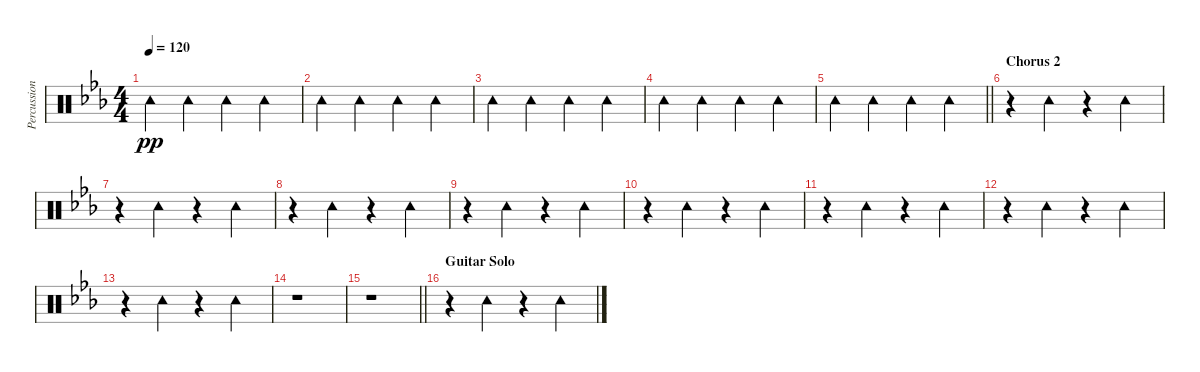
\track ("Percussion" "Percussion") {instrument percussion}
\staff {score}
\articulation defaults
\ts (4 4)
\tempo 120
\clef neutral
\ks cminor "Tambourine (hit)".4{dy pp} "Tambourine (hit)".4 "Tambourine (hit)".4 "Tambourine (hit)".4
|
"Tambourine (hit)".4 "Tambourine (hit)".4 "Tambourine (hit)".4 "Tambourine (hit)".4 |
"Tambourine (hit)".4 "Tambourine (hit)".4 "Tambourine (hit)".4 "Tambourine (hit)".4 |
"Tambourine (hit)".4 "Tambourine (hit)".4 "Tambourine (hit)".4 "Tambourine (hit)".4 |
\barLineRight lightlight "Tambourine (hit)".4 "Tambourine (hit)".4 "Tambourine (hit)".4 "Tambourine (hit)".4
|
\section ("" "Chorus 2")
r.4 "Tambourine (hit)".4 r.4 "Tambourine (hit)".4 |
r.4 "Tambourine (hit)".4 r.4 "Tambourine (hit)".4 |
r.4 "Tambourine (hit)".4 r.4 "Tambourine (hit)".4 |
r.4 "Tambourine (hit)".4 r.4 "Tambourine (hit)".4 |
r.4 "Tambourine (hit)".4 r.4 "Tambourine (hit)".4 |
r.4 "Tambourine (hit)".4 r.4 "Tambourine (hit)".4 |
r.4 "Tambourine (hit)".4 r.4 "Tambourine (hit)".4 |
r.4 "Tambourine (hit)".4 r.4 "Tambourine (hit)".4 |
r.1 |
\barLineRight lightlight
r.1 |
\section ("" "Guitar Solo")
r.4 "Tambourine (hit)".4 r.4 "Tambourine (hit)".4
